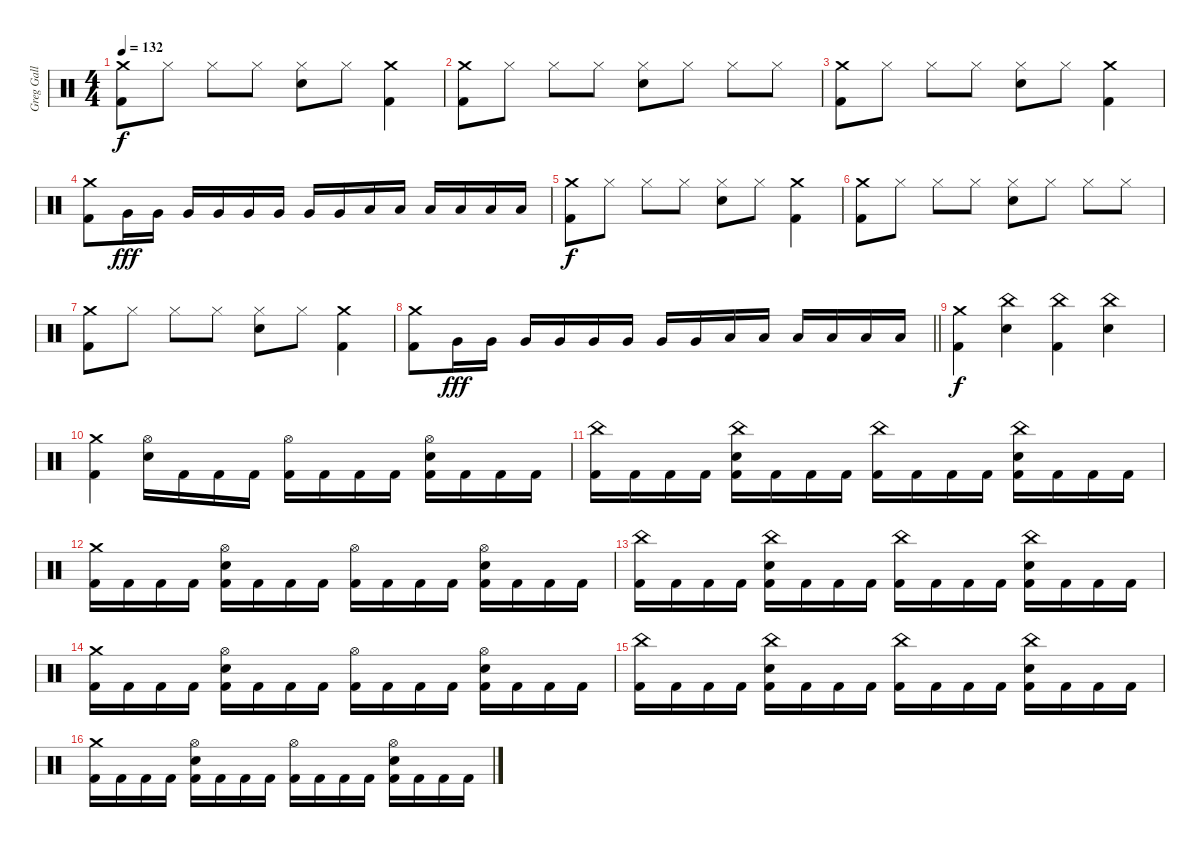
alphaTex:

\track ("Greg Gall" "Greg Gall") {instrument percussion}
\staff {score}
\articulation defaults
\ts (4 4)
\tempo 132
\clef neutral
\ks c
("Crash medium (hit)" "Kick (hit) 2").8{dy f} "Hi-Hat (closed)".8 "Hi-Hat (closed)".8 "Hi-Hat (closed)".8 ("Hi-Hat (closed)" "Electric Snare (hit)").8 "Hi-Hat (closed)".8 ("Crash medium (hit)" "Kick (hit) 2").4 |
("Crash medium (hit)" "Kick (hit) 2").8 "Hi-Hat (closed)".8 "Hi-Hat (closed)".8 "Hi-Hat (closed)".8 ("Hi-Hat (closed)" "Electric Snare (hit)").8 "Hi-Hat (closed)".8 "Hi-Hat (closed)".8 "Hi-Hat (closed)".8 |
("Crash medium (hit)" "Kick (hit) 2").8 "Hi-Hat (closed)".8 "Hi-Hat (closed)".8 "Hi-Hat (closed)".8 ("Hi-Hat (closed)" "Electric Snare (hit)").8 "Hi-Hat (closed)".8 ("Crash medium (hit)" "Kick (hit) 2").4 |
("Crash medium (hit)" "Kick (hit) 2").8 "Very Low Tom (hit)".16{dy fff} "Very Low Tom (hit)".16 "Very Low Tom (hit)".16 "Very Low Tom (hit)".16 "Very Low Tom (hit)".16 "Very Low Tom (hit)".16 "Very Low Tom (hit)".16 "Very Low Tom (hit)".16 "Low Floor Tom (hit)".16 "Low Floor Tom (hit)".16 "Low Floor Tom (hit)".16 "Low Floor Tom (hit)".16 "Low Floor Tom (hit)".16 "Low Floor Tom (hit)".16 |
("Crash medium (hit)" "Kick (hit) 2").8{dy f} "Hi-Hat (closed)".8 "Hi-Hat (closed)".8 "Hi-Hat (closed)".8 ("Hi-Hat (closed)" "Electric Snare (hit)").8 "Hi-Hat (closed)".8 ("Crash medium (hit)" "Kick (hit) 2").4 |
("Crash medium (hit)" "Kick (hit) 2").8 "Hi-Hat (closed)".8 "Hi-Hat (closed)".8 "Hi-Hat (closed)".8 ("Hi-Hat (closed)" "Electric Snare (hit)").8 "Hi-Hat (closed)".8 "Hi-Hat (closed)".8 "Hi-Hat (closed)".8 |
("Crash medium (hit)" "Kick (hit) 2").8 "Hi-Hat (closed)".8 "Hi-Hat (closed)".8 "Hi-Hat (closed)".8 ("Hi-Hat (closed)" "Electric Snare (hit)").8 "Hi-Hat (closed)".8 ("Crash medium (hit)" "Kick (hit) 2").4 |
\barLineRight lightlight
("Crash medium (hit)" "Kick (hit) 2").8 "Very Low Tom (hit)".16{dy fff} "Very Low Tom (hit)".16 "Very Low Tom (hit)".16 "Very Low Tom (hit)".16 "Very Low Tom (hit)".16 "Very Low Tom (hit)".16 "Very Low Tom (hit)".16 "Very Low Tom (hit)".16 "Low Floor Tom (hit)".16 "Low Floor Tom (hit)".16 "Low Floor Tom (hit)".16 "Low Floor Tom (hit)".16 "Low Floor Tom (hit)".16 "Low Floor Tom (hit)".16 |
("Crash medium (hit)" "Kick (hit) 2").4{dy f} ("China (hit)" "Electric Snare (hit)").4 ("China (hit)" "Kick (hit) 2").4 ("China (hit)" "Electric Snare (hit)").4 |
("Crash medium (hit)" "Kick (hit) 2").4 ("Hi-Hat (open)" "Electric Snare (hit)").16 "Kick (hit) 2".16 "Kick (hit) 2".16 "Kick (hit) 2".16 ("Hi-Hat (open)" "Kick (hit) 2").16 "Kick (hit) 2".16 "Kick (hit) 2".16 "Kick (hit) 2".16 ("Hi-Hat (open)" "Electric Snare (hit)" "Kick (hit) 2").16 "Kick (hit) 2".16 "Kick (hit) 2".16 "Kick (hit) 2".16 |
("China (hit)" "Kick (hit) 2").16 "Kick (hit) 2".16 "Kick (hit) 2".16 "Kick (hit) 2".16 ("China (hit)" "Electric Snare (hit)" "Kick (hit) 2").16 "Kick (hit) 2".16 "Kick (hit) 2".16 "Kick (hit) 2".16 ("China (hit)" "Kick (hit) 2").16 "Kick (hit) 2".16 "Kick (hit) 2".16 "Kick (hit) 2".16 ("China (hit)" "Electric Snare (hit)" "Kick (hit) 2").16 "Kick (hit) 2".16 "Kick (hit) 2".16 "Kick (hit) 2".16 |
("Crash medium (hit)" "Kick (hit) 2").16 "Kick (hit) 2".16 "Kick (hit) 2".16 "Kick (hit) 2".16 ("Hi-Hat (open)" "Electric Snare (hit)" "Kick (hit) 2").16 "Kick (hit) 2".16 "Kick (hit) 2".16 "Kick (hit) 2".16 ("Hi-Hat (open)" "Kick (hit) 2").16 "Kick (hit) 2".16 "Kick (hit) 2".16 "Kick (hit) 2".16 ("Hi-Hat (open)" "Electric Snare (hit)" "Kick (hit) 2").16 "Kick (hit) 2".16 "Kick (hit) 2".16 "Kick (hit) 2".16 |
("China (hit)" "Kick (hit) 2").16 "Kick (hit) 2".16 "Kick (hit) 2".16 "Kick (hit) 2".16 ("China (hit)" "Electric Snare (hit)" "Kick (hit) 2").16 "Kick (hit) 2".16 "Kick (hit) 2".16 "Kick (hit) 2".16 ("China (hit)" "Kick (hit) 2").16 "Kick (hit) 2".16 "Kick (hit) 2".16 "Kick (hit) 2".16 ("China (hit)" "Electric Snare (hit)" "Kick (hit) 2").16 "Kick (hit) 2".16 "Kick (hit) 2".16 "Kick (hit) 2".16 |
("Crash medium (hit)" "Kick (hit) 2").16 "Kick (hit) 2".16 "Kick (hit) 2".16 "Kick (hit) 2".16 ("Hi-Hat (open)" "Electric Snare (hit)" "Kick (hit) 2").16 "Kick (hit) 2".16 "Kick (hit) 2".16 "Kick (hit) 2".16 ("Hi-Hat (open)" "Kick (hit) 2").16 "Kick (hit) 2".16 "Kick (hit) 2".16 "Kick (hit) 2".16 ("Hi-Hat (open)" "Electric Snare (hit)" "Kick (hit) 2").16 "Kick (hit) 2".16 "Kick (hit) 2".16 "Kick (hit) 2".16 |
("China (hit)" "Kick (hit) 2").16 "Kick (hit) 2".16 "Kick (hit) 2".16 "Kick (hit) 2".16 ("China (hit)" "Electric Snare (hit)" "Kick (hit) 2").16 "Kick (hit) 2".16 "Kick (hit) 2".16 "Kick (hit) 2".16 ("China (hit)" "Kick (hit) 2").16 "Kick (hit) 2".16 "Kick (hit) 2".16 "Kick (hit) 2".16 ("China (hit)" "Electric Snare (hit)" "Kick (hit) 2").16 "Kick (hit) 2".16 "Kick (hit) 2".16 "Kick (hit) 2".16 |
("Crash medium (hit)" "Kick (hit) 2").16 "Kick (hit) 2".16 "Kick (hit) 2".16 "Kick (hit) 2".16 ("Hi-Hat (open)" "Electric Snare (hit)" "Kick (hit) 2").16 "Kick (hit) 2".16 "Kick (hit) 2".16 "Kick (hit) 2".16 ("Hi-Hat (open)" "Kick (hit) 2").16 "Kick (hit) 2".16 "Kick (hit) 2".16 "Kick (hit) 2".16 ("Hi-Hat (open)" "Electric Snare (hit)" "Kick (hit) 2").16 "Kick (hit) 2".16 "Kick (hit) 2".16 "Kick (hit) 2".16
